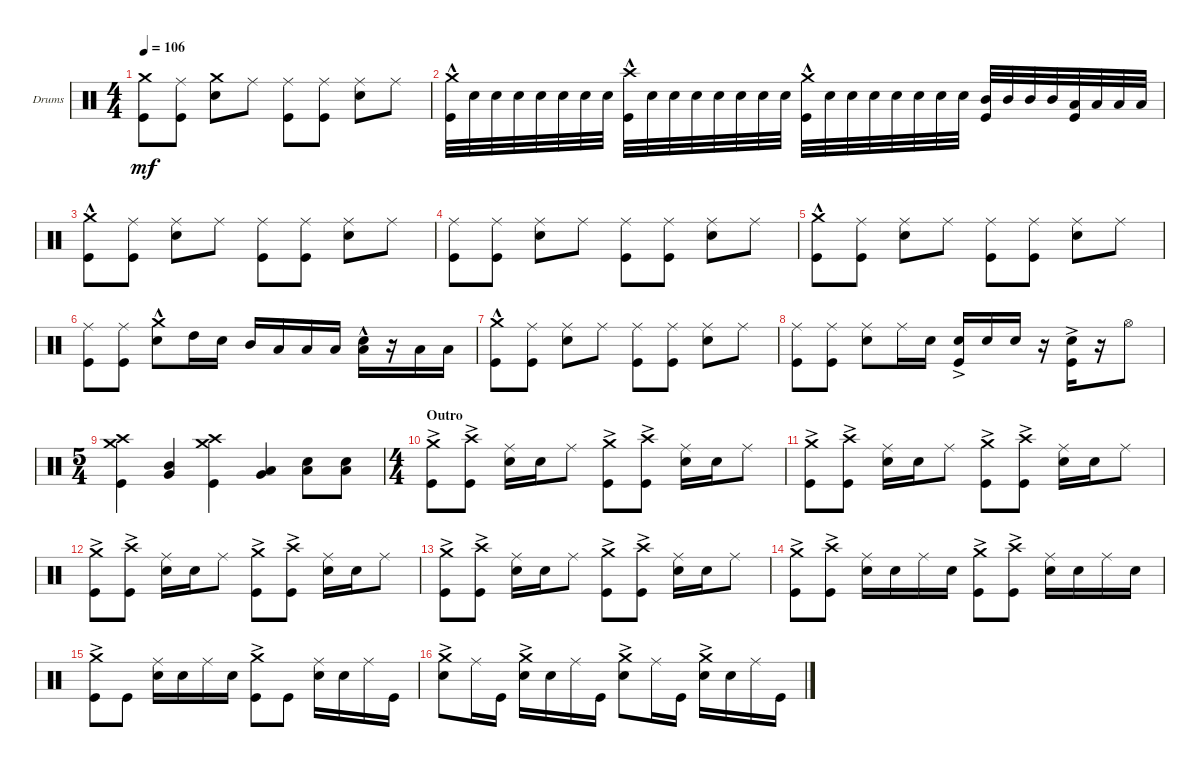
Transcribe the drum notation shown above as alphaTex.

\defaultSystemsLayout 4
\bracketExtendMode groupsimilarinstruments
\firstSystemTrackNameOrientation horizontal
\otherSystemsTrackNameOrientation horizontal
\track ("Drumkit" "Drums") {mute instrument percussion}
\staff {score}
\articulation defaults
\ts (4 4)
\tempo 106
\clef neutral
\ks c
("Kick (hit)" "Crash medium (hit)").8{dy mf} ("Kick (hit)" "Ride (middle)").8 ("Snare (hit) 2" "Crash medium (hit)").8 "Ride (middle)".8 ("Kick (hit)" "Ride (middle)").8 ("Kick (hit)" "Ride (middle)").8 ("Snare (hit) 2" "Ride (middle)").8 "Ride (middle)".8 |
("Crash medium (hit)"{hac} "Kick (hit)"{hac}).32 "Snare (hit) 2".32 "Snare (hit) 2".32 "Snare (hit) 2".32 "Snare (hit) 2".32 "Snare (hit) 2".32 "Snare (hit) 2".32 "Snare (hit) 2".32 ("Kick (hit)"{hac} "Crash high (hit)"{hac}).32 "Snare (hit) 2".32 "Snare (hit) 2".32 "Snare (hit) 2".32 "Snare (hit) 2".32 "Snare (hit) 2".32 "Snare (hit) 2".32 "Snare (hit) 2".32 ("Crash medium (hit)"{hac} "Kick (hit)"{hac}).32 "Snare (hit) 2".32 "Snare (hit) 2".32 "Snare (hit) 2".32 "Snare (hit) 2".32 "Snare (hit) 2".32 "Snare (hit) 2".32 "Snare (hit) 2".32 ("Mid Tom (hit)" "Kick (hit)").32 "Mid Tom (hit)".32 "Mid Tom (hit)".32 "Mid Tom (hit)".32 ("Low Tom (hit)" "Kick (hit)").32 "Low Tom (hit)".32 "Low Tom (hit)".32 "Low Tom (hit)".32 |
("Kick (hit)" "Crash medium (hit)"{hac}).8 ("Kick (hit)" "Ride (middle)").8 ("Snare (hit) 2" "Ride (middle)").8 "Ride (middle)".8 ("Kick (hit)" "Ride (middle)").8 ("Kick (hit)" "Ride (middle)").8 ("Snare (hit) 2" "Ride (middle)").8 "Ride (middle)".8 |
("Kick (hit)" "Ride (middle)").8 ("Kick (hit)" "Ride (middle)").8 ("Snare (hit) 2" "Ride (middle)").8 "Ride (middle)".8 ("Kick (hit)" "Ride (middle)").8 ("Kick (hit)" "Ride (middle)").8 ("Snare (hit) 2" "Ride (middle)").8 "Ride (middle)".8 |
("Kick (hit)" "Crash medium (hit)"{hac}).8 ("Kick (hit)" "Ride (middle)").8 ("Snare (hit) 2" "Ride (middle)").8 "Ride (middle)".8 ("Kick (hit)" "Ride (middle)").8 ("Kick (hit)" "Ride (middle)").8 ("Snare (hit) 2" "Ride (middle)").8 "Ride (middle)".8 |
("Kick (hit)" "Ride (middle)").8 ("Kick (hit)" "Ride (middle)").8 ("Snare (hit) 2" "Crash medium (hit)"{hac}).8 "High Tom (hit)".16 "Snare (hit) 2".16 "Mid Tom (hit)".16 "Low Tom (hit)".16 "Low Tom (hit)".16 "Low Tom (hit)".16 ("Snare (hit) 2" "Low Tom (hit)"{hac}).16 r.16 "Low Tom (hit)".16 "Low Tom (hit)".16 |
("Kick (hit)" "Crash medium (hit)"{hac}).8 ("Kick (hit)" "Ride (middle)").8 ("Snare (hit) 2" "Ride (middle)").8 "Ride (middle)".8 ("Kick (hit)" "Ride (middle)").8 ("Kick (hit)" "Ride (middle)").8 ("Snare (hit) 2" "Ride (middle)").8 "Ride (middle)".8 |
("Kick (hit)" "Ride (middle)").8 ("Kick (hit)" "Ride (middle)").8 ("Snare (hit) 2" "Ride (middle)").8 "Ride (middle)".16 "Snare (hit) 2".16 ("Snare (hit) 2"{ac} "Kick (hit)").16 "Snare (hit) 2".16 "Snare (hit) 2".16 r.16 ("Snare (hit) 2"{ac} "Kick (hit)").16 r.16 "Hi-Hat (open)".8 |
\ts (5 4)
("Kick (hit)" "Crash medium (hit)" "Crash high (hit)").4 ("Very Low Tom (hit)" "Mid Tom (hit)").4 ("Kick (hit)" "Crash medium (hit)" "Crash high (hit)").4 ("Very Low Tom (hit)" "Low Tom (hit)").4 ("Snare (hit) 2" "Low Tom (hit)").8 ("Snare (hit) 2" "Low Tom (hit)").8 |
\ts (4 4)
\section ("" "Outro")
("Kick (hit)" "Crash medium (hit)"{ac}).8 ("Kick (hit)" "Crash high (hit)"{ac}).8 ("Snare (hit) 2" "Ride (middle)").16 "Snare (hit) 2".16 "Ride (middle)".8 ("Kick (hit)" "Crash medium (hit)"{ac}).8 ("Kick (hit)" "Crash high (hit)"{ac}).8 ("Snare (hit) 2" "Ride (middle)").16 "Snare (hit) 2".16 "Ride (middle)".8 |
("Kick (hit)" "Crash medium (hit)"{ac}).8 ("Kick (hit)" "Crash high (hit)"{ac}).8 ("Snare (hit) 2" "Ride (middle)").16 "Snare (hit) 2".16 "Ride (middle)".8 ("Kick (hit)" "Crash medium (hit)"{ac}).8 ("Kick (hit)" "Crash high (hit)"{ac}).8 ("Snare (hit) 2" "Ride (middle)").16 "Snare (hit) 2".16 "Ride (middle)".8 |
("Kick (hit)" "Crash medium (hit)"{ac}).8 ("Kick (hit)" "Crash high (hit)"{ac}).8 ("Snare (hit) 2" "Ride (middle)").16 "Snare (hit) 2".16 "Ride (middle)".8 ("Kick (hit)" "Crash medium (hit)"{ac}).8 ("Kick (hit)" "Crash high (hit)"{ac}).8 ("Snare (hit) 2" "Ride (middle)").16 "Snare (hit) 2".16 "Ride (middle)".8 |
("Kick (hit)" "Crash medium (hit)"{ac}).8 ("Kick (hit)" "Crash high (hit)"{ac}).8 ("Snare (hit) 2" "Ride (middle)").16 "Snare (hit) 2".16 "Ride (middle)".8 ("Kick (hit)" "Crash medium (hit)"{ac}).8 ("Kick (hit)" "Crash high (hit)"{ac}).8 ("Snare (hit) 2" "Ride (middle)").16 "Snare (hit) 2".16 "Ride (middle)".8 |
("Kick (hit)" "Crash medium (hit)"{ac}).8 ("Kick (hit)" "Crash high (hit)"{ac}).8 ("Snare (hit) 2" "Ride (middle)").16 "Snare (hit) 2".16 "Ride (middle)".16 "Snare (hit) 2".16 ("Kick (hit)" "Crash medium (hit)"{ac}).8 ("Kick (hit)" "Crash high (hit)"{ac}).8 ("Snare (hit) 2" "Ride (middle)").16 "Snare (hit) 2".16 "Ride (middle)".16 "Snare (hit) 2".16 |
("Kick (hit)" "Crash medium (hit)"{ac}).8 "Kick (hit)".8 ("Snare (hit) 2" "Ride (middle)").16 "Snare (hit) 2".16 "Ride (middle)".16 "Snare (hit) 2".16 ("Kick (hit)" "Crash medium (hit)"{ac}).8 "Kick (hit)".8 ("Snare (hit) 2" "Ride (middle)").16 "Snare (hit) 2".16 "Ride (middle)".16 "Kick (hit)".16 |
("Snare (hit) 2" "Crash medium (hit)"{ac}).8 "Ride (middle)".16 "Kick (hit)".16 ("Snare (hit) 2" "Crash medium (hit)"{ac}).16 "Snare (hit) 2".16 "Ride (middle)".16 "Kick (hit)".16 ("Snare (hit) 2" "Crash medium (hit)"{ac}).8 "Ride (middle)".16 "Kick (hit)".16 ("Snare (hit) 2" "Crash medium (hit)"{ac}).16 "Snare (hit) 2".16 "Ride (middle)".16 "Kick (hit)".16
